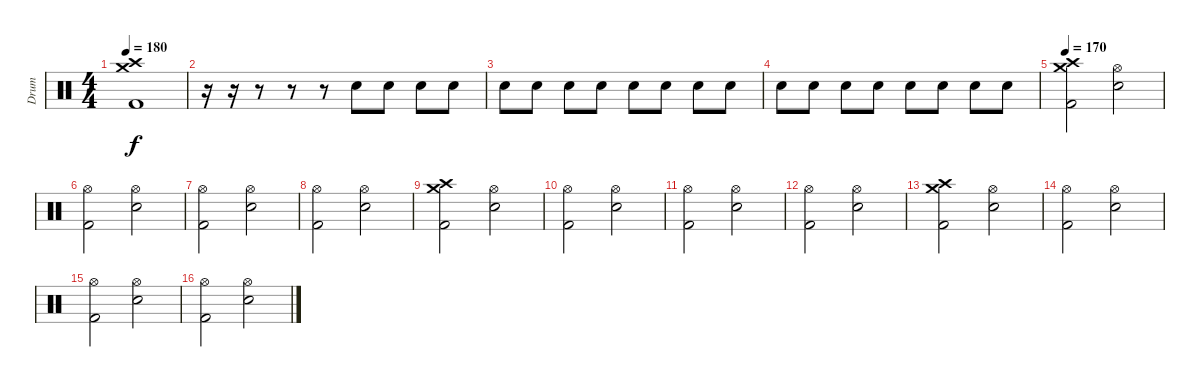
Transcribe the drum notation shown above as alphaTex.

\track ("Drum" "Drum") {instrument percussion}
\staff {score}
\articulation defaults
\ts (4 4)
\tempo 180
\clef neutral
\ks c
("Crash medium (hit)" "Crash high (hit)" "Kick (hit) 2").1{dy f} |
r.16{volume 0} r.16 r.8 r.8 r.8 "Snare (hit) 2".8{volume 16} "Snare (hit) 2".8 "Snare (hit) 2".8 "Snare (hit) 2".8 |
"Snare (hit) 2".8 "Snare (hit) 2".8 "Snare (hit) 2".8 "Snare (hit) 2".8 "Snare (hit) 2".8 "Snare (hit) 2".8 "Snare (hit) 2".8 "Snare (hit) 2".8 |
"Snare (hit) 2".8 "Snare (hit) 2".8 "Snare (hit) 2".8 "Snare (hit) 2".8 "Snare (hit) 2".8 "Snare (hit) 2".8 "Snare (hit) 2".8 "Snare (hit) 2".8 |
\tempo 170
("Crash high (hit)" "Kick (hit) 2" "Crash medium (hit)").2 ("Snare (hit) 2" "Hi-Hat (open)").2 |
("Kick (hit) 2" "Hi-Hat (open)").2 ("Snare (hit) 2" "Hi-Hat (open)").2 |
("Kick (hit) 2" "Hi-Hat (open)").2 ("Snare (hit) 2" "Hi-Hat (open)").2 |
("Kick (hit) 2" "Hi-Hat (open)").2 ("Snare (hit) 2" "Hi-Hat (open)").2 |
("Crash high (hit)" "Kick (hit) 2" "Crash medium (hit)").2 ("Snare (hit) 2" "Hi-Hat (open)").2 |
("Kick (hit) 2" "Hi-Hat (open)").2 ("Snare (hit) 2" "Hi-Hat (open)").2 |
("Kick (hit) 2" "Hi-Hat (open)").2 ("Snare (hit) 2" "Hi-Hat (open)").2 |
("Kick (hit) 2" "Hi-Hat (open)").2 ("Snare (hit) 2" "Hi-Hat (open)").2 |
("Crash high (hit)" "Kick (hit) 2" "Crash medium (hit)").2 ("Snare (hit) 2" "Hi-Hat (open)").2 |
("Kick (hit) 2" "Hi-Hat (open)").2 ("Snare (hit) 2" "Hi-Hat (open)").2 |
("Kick (hit) 2" "Hi-Hat (open)").2 ("Snare (hit) 2" "Hi-Hat (open)").2 |
("Kick (hit) 2" "Hi-Hat (open)").2 ("Snare (hit) 2" "Hi-Hat (open)").2
